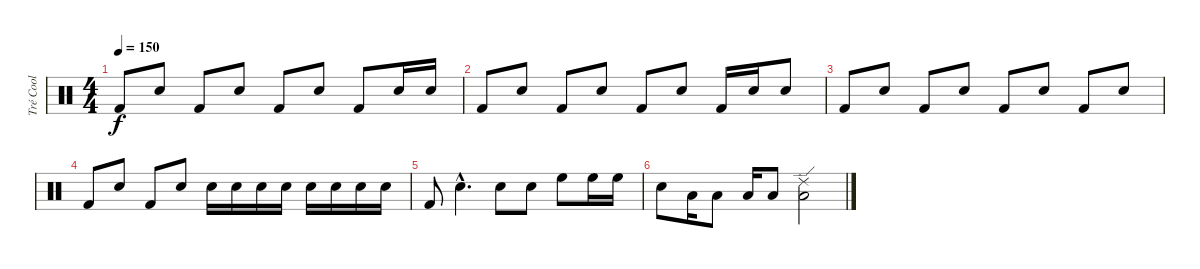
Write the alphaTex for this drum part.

\track ("Tré Cool" "Tré Cool") {instrument percussion}
\staff {score}
\articulation defaults
\ts (4 4)
\tempo 150
\clef neutral
\ks c "Kick (hit) 2".8{dy f} "Electric Snare (hit)".8 "Kick (hit) 2".8 "Electric Snare (hit)".8 "Kick (hit) 2".8 "Electric Snare (hit)".8 "Kick (hit) 2".8 "Electric Snare (hit)".16 "Electric Snare (hit)".16
|
"Kick (hit) 2".8 "Electric Snare (hit)".8 "Kick (hit) 2".8 "Electric Snare (hit)".8 "Kick (hit) 2".8 "Electric Snare (hit)".8 "Kick (hit) 2".16 "Electric Snare (hit)".16 "Electric Snare (hit)".8 |
"Kick (hit) 2".8 "Electric Snare (hit)".8 "Kick (hit) 2".8 "Electric Snare (hit)".8 "Kick (hit) 2".8 "Electric Snare (hit)".8 "Kick (hit) 2".8 "Electric Snare (hit)".8 |
"Kick (hit) 2".8 "Electric Snare (hit)".8 "Kick (hit) 2".8 "Electric Snare (hit)".8 "Electric Snare (hit)".16 "Electric Snare (hit)".16 "Electric Snare (hit)".16 "Electric Snare (hit)".16 "Electric Snare (hit)".16 "Electric Snare (hit)".16 "Electric Snare (hit)".16 "Electric Snare (hit)".16 |
"Kick (hit) 2".8 "Electric Snare (hit)"{hac}.4{d} "Electric Snare (hit)".8 "Electric Snare (hit)".8 "High Floor Tom (hit)".8 "High Floor Tom (hit)".16 "High Floor Tom (hit)".16 |
"Electric Snare (hit)".8 "Low Tom (hit)".16 "Low Tom (hit)".8 "Low Tom (hit)".16 "Low Tom (hit)".8 ("Ride (edge) 2" "Low Tom (hit)").2
